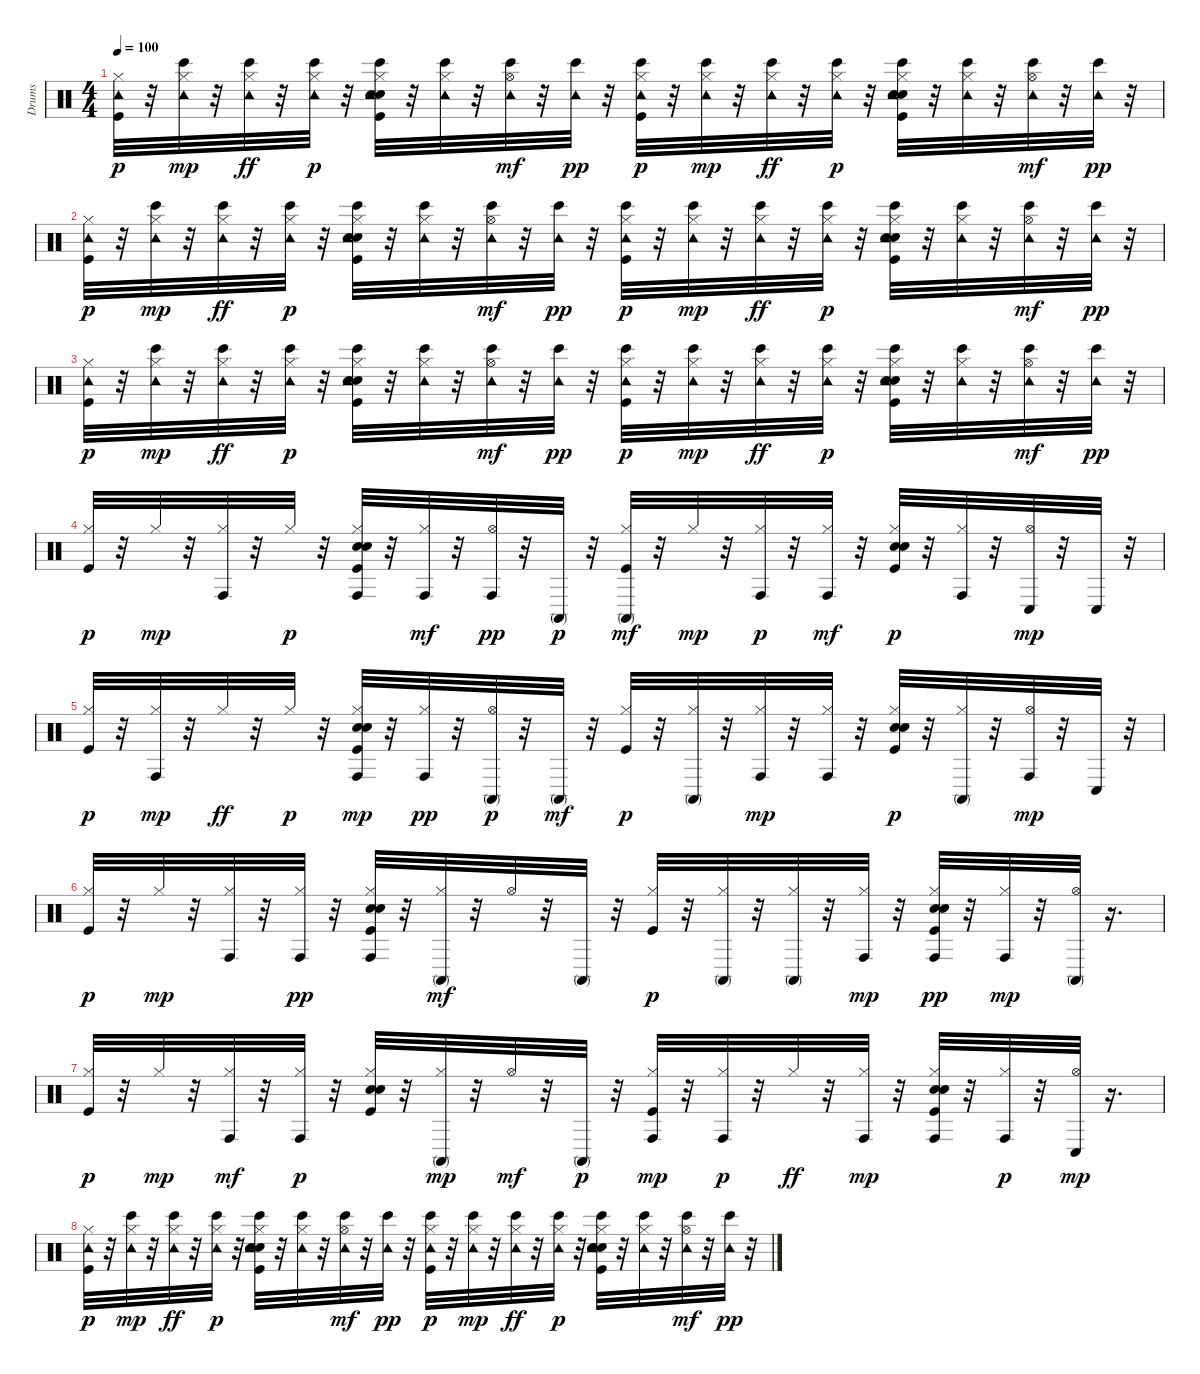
\track ("Drums" "Drums") {instrument percussion}
\staff {score}
\articulation defaults
\ts (4 4)
\tempo 100
\clef neutral
\ks c
("Tambourine (hit)" "Kick (hit)" "Hi-Hat (closed)").32{dy p} r.32 ("Bongo High (hit)" "Tambourine (hit)" "Hi-Hat (closed)").32{dy mp} r.32 ("Bongo High (hit)" "Tambourine (hit)" "Hi-Hat (closed)").32{dy ff} r.32 ("Bongo High (hit)" "Tambourine (hit)" "Hi-Hat (closed)").32{dy p} r.32 ("Hand Clap (hit)" "Snare (hit) 2" "Bongo High (hit)" "Tambourine (hit)" "Kick (hit)" "Hi-Hat (closed)").32 r.32 ("Bongo High (hit)" "Tambourine (hit)" "Hi-Hat (closed)").32 r.32 ("Bongo High (hit)" "Tambourine (hit)" "Hi-Hat (open)").32{dy mf} r.32 ("Bongo High (hit)" "Tambourine (hit)").32{dy pp} r.32 ("Bongo High (hit)" "Tambourine (hit)" "Kick (hit)" "Hi-Hat (closed)").32{dy p} r.32 ("Bongo High (hit)" "Tambourine (hit)" "Hi-Hat (closed)").32{dy mp} r.32 ("Bongo High (hit)" "Tambourine (hit)" "Hi-Hat (closed)").32{dy ff} r.32 ("Bongo High (hit)" "Tambourine (hit)" "Hi-Hat (closed)").32{dy p} r.32 ("Hand Clap (hit)" "Snare (hit) 2" "Bongo High (hit)" "Tambourine (hit)" "Kick (hit)" "Hi-Hat (closed)").32 r.32 ("Bongo High (hit)" "Tambourine (hit)" "Hi-Hat (closed)").32 r.32 ("Bongo High (hit)" "Tambourine (hit)" "Hi-Hat (open)").32{dy mf} r.32 ("Bongo High (hit)" "Tambourine (hit)").32{dy pp} r.32 |
("Tambourine (hit)" "Kick (hit)" "Hi-Hat (closed)").32{dy p} r.32 ("Bongo High (hit)" "Tambourine (hit)" "Hi-Hat (closed)").32{dy mp} r.32 ("Bongo High (hit)" "Tambourine (hit)" "Hi-Hat (closed)").32{dy ff} r.32 ("Bongo High (hit)" "Tambourine (hit)" "Hi-Hat (closed)").32{dy p} r.32 ("Hand Clap (hit)" "Snare (hit) 2" "Bongo High (hit)" "Tambourine (hit)" "Kick (hit)" "Hi-Hat (closed)").32 r.32 ("Bongo High (hit)" "Tambourine (hit)" "Hi-Hat (closed)").32 r.32 ("Bongo High (hit)" "Tambourine (hit)" "Hi-Hat (open)").32{dy mf} r.32 ("Bongo High (hit)" "Tambourine (hit)").32{dy pp} r.32 ("Bongo High (hit)" "Tambourine (hit)" "Kick (hit)" "Hi-Hat (closed)").32{dy p} r.32 ("Bongo High (hit)" "Tambourine (hit)" "Hi-Hat (closed)").32{dy mp} r.32 ("Bongo High (hit)" "Tambourine (hit)" "Hi-Hat (closed)").32{dy ff} r.32 ("Bongo High (hit)" "Tambourine (hit)" "Hi-Hat (closed)").32{dy p} r.32 ("Hand Clap (hit)" "Snare (hit) 2" "Bongo High (hit)" "Tambourine (hit)" "Kick (hit)" "Hi-Hat (closed)").32 r.32 ("Bongo High (hit)" "Tambourine (hit)" "Hi-Hat (closed)").32 r.32 ("Bongo High (hit)" "Tambourine (hit)" "Hi-Hat (open)").32{dy mf} r.32 ("Bongo High (hit)" "Tambourine (hit)").32{dy pp} r.32 |
("Tambourine (hit)" "Kick (hit)" "Hi-Hat (closed)").32{dy p} r.32 ("Bongo High (hit)" "Tambourine (hit)" "Hi-Hat (closed)").32{dy mp} r.32 ("Bongo High (hit)" "Tambourine (hit)" "Hi-Hat (closed)").32{dy ff} r.32 ("Bongo High (hit)" "Tambourine (hit)" "Hi-Hat (closed)").32{dy p} r.32 ("Hand Clap (hit)" "Snare (hit) 2" "Bongo High (hit)" "Tambourine (hit)" "Kick (hit)" "Hi-Hat (closed)").32 r.32 ("Bongo High (hit)" "Tambourine (hit)" "Hi-Hat (closed)").32 r.32 ("Bongo High (hit)" "Tambourine (hit)" "Hi-Hat (open)").32{dy mf} r.32 ("Bongo High (hit)" "Tambourine (hit)").32{dy pp} r.32 ("Bongo High (hit)" "Tambourine (hit)" "Kick (hit)" "Hi-Hat (closed)").32{dy p} r.32 ("Bongo High (hit)" "Tambourine (hit)" "Hi-Hat (closed)").32{dy mp} r.32 ("Bongo High (hit)" "Tambourine (hit)" "Hi-Hat (closed)").32{dy ff} r.32 ("Bongo High (hit)" "Tambourine (hit)" "Hi-Hat (closed)").32{dy p} r.32 ("Hand Clap (hit)" "Snare (hit) 2" "Bongo High (hit)" "Tambourine (hit)" "Kick (hit)" "Hi-Hat (closed)").32 r.32 ("Bongo High (hit)" "Tambourine (hit)" "Hi-Hat (closed)").32 r.32 ("Bongo High (hit)" "Tambourine (hit)" "Hi-Hat (open)").32{dy mf} r.32 ("Bongo High (hit)" "Tambourine (hit)").32{dy pp} r.32 |
("Kick (hit)" "Hi-Hat (closed)").32{dy p} r.32 "Hi-Hat (closed)".32{dy mp} r.32 ("Hi-Hat (closed)" "Conga high (hit)").32 r.32 "Hi-Hat (closed)".32{dy p} r.32 ("Hand Clap (hit)" "Snare (hit) 2" "Kick (hit)" "Hi-Hat (closed)" "Conga high (hit)").32 r.32 ("Hi-Hat (closed)" "Conga high (hit)").32{dy mf} r.32 ("Hi-Hat (open)" "Conga high (hit)").32{dy pp} r.32 "Conga high (mute)".32{dy p} r.32 ("Kick (hit)" "Hi-Hat (closed)" "Conga high (mute)").32{dy mf} r.32 "Hi-Hat (closed)".32{dy mp} r.32 ("Hi-Hat (closed)" "Conga high (hit)").32{dy p} r.32 ("Hi-Hat (closed)" "Conga high (hit)").32{dy mf} r.32 ("Hand Clap (hit)" "Snare (hit) 2" "Kick (hit)" "Hi-Hat (closed)").32{dy p} r.32 ("Hi-Hat (closed)" "Conga high (hit)").32 r.32 ("Hi-Hat (open)" "Conga low (hit)").32{dy mp} r.32 "Conga low (hit)".32 r.32 |
("Kick (hit)" "Hi-Hat (closed)").32{dy p} r.32 ("Hi-Hat (closed)" "Conga high (hit)").32{dy mp} r.32 "Hi-Hat (closed)".32{dy ff} r.32 "Hi-Hat (closed)".32{dy p} r.32 ("Hand Clap (hit)" "Snare (hit) 2" "Kick (hit)" "Hi-Hat (closed)" "Conga high (hit)").32{dy mp} r.32 ("Hi-Hat (closed)" "Conga high (hit)").32{dy pp} r.32 ("Hi-Hat (open)" "Conga high (mute)").32{dy p} r.32 "Conga high (mute)".32{dy mf} r.32 ("Kick (hit)" "Hi-Hat (closed)").32{dy p} r.32 ("Hi-Hat (closed)" "Conga high (mute)").32 r.32 ("Hi-Hat (closed)" "Conga high (hit)").32{dy mp} r.32 ("Hi-Hat (closed)" "Conga high (hit)").32 r.32 ("Hand Clap (hit)" "Snare (hit) 2" "Kick (hit)" "Hi-Hat (closed)").32{dy p} r.32 ("Hi-Hat (closed)" "Conga high (mute)").32 r.32 ("Hi-Hat (open)" "Conga high (hit)").32{dy mp} r.32 "Conga low (hit)".32 r.32 |
("Kick (hit)" "Hi-Hat (closed)").32{dy p} r.32 "Hi-Hat (closed)".32{dy mp} r.32 ("Hi-Hat (closed)" "Conga high (hit)").32 r.32 ("Hi-Hat (closed)" "Conga high (hit)").32{dy pp} r.32 ("Hand Clap (hit)" "Snare (hit) 2" "Kick (hit)" "Hi-Hat (closed)" "Conga high (hit)").32 r.32 ("Hi-Hat (closed)" "Conga high (mute)").32{dy mf} r.32 "Hi-Hat (open)".32 r.32 "Conga high (mute)".32 r.32 ("Kick (hit)" "Hi-Hat (closed)").32{dy p} r.32 ("Hi-Hat (closed)" "Conga high (mute)").32 r.32 ("Hi-Hat (closed)" "Conga high (mute)").32 r.32 ("Hi-Hat (closed)" "Conga high (hit)").32{dy mp} r.32 ("Hand Clap (hit)" "Snare (hit) 2" "Kick (hit)" "Hi-Hat (closed)" "Conga high (hit)").32{dy pp} r.32 ("Hi-Hat (closed)" "Conga high (hit)").32{dy mp} r.32 ("Hi-Hat (open)" "Conga high (mute)").32 r.16{d} |
("Kick (hit)" "Hi-Hat (closed)").32{dy p} r.32 "Hi-Hat (closed)".32{dy mp} r.32 ("Hi-Hat (closed)" "Conga high (hit)").32{dy mf} r.32 ("Hi-Hat (closed)" "Conga high (hit)").32{dy p} r.32 ("Hand Clap (hit)" "Snare (hit) 2" "Kick (hit)" "Hi-Hat (closed)").32 r.32 ("Hi-Hat (closed)" "Conga high (mute)").32{dy mp} r.32 "Hi-Hat (open)".32{dy mf} r.32 "Conga high (mute)".32{dy p} r.32 ("Kick (hit)" "Hi-Hat (closed)" "Conga high (hit)").32{dy mp} r.32 ("Hi-Hat (closed)" "Conga high (hit)").32{dy p} r.32 "Hi-Hat (closed)".32{dy ff} r.32 ("Hi-Hat (closed)" "Conga high (hit)").32{dy mp} r.32 ("Hand Clap (hit)" "Snare (hit) 2" "Kick (hit)" "Hi-Hat (closed)" "Conga high (hit)").32 r.32 ("Hi-Hat (closed)" "Conga high (hit)").32{dy p} r.32 ("Hi-Hat (open)" "Conga low (hit)").32{dy mp} r.16{d} |
("Tambourine (hit)" "Kick (hit)" "Hi-Hat (closed)").32{dy p} r.32 ("Bongo High (hit)" "Tambourine (hit)" "Hi-Hat (closed)").32{dy mp} r.32 ("Bongo High (hit)" "Tambourine (hit)" "Hi-Hat (closed)").32{dy ff} r.32 ("Bongo High (hit)" "Tambourine (hit)" "Hi-Hat (closed)").32{dy p} r.32 ("Hand Clap (hit)" "Snare (hit) 2" "Bongo High (hit)" "Tambourine (hit)" "Kick (hit)" "Hi-Hat (closed)").32 r.32 ("Bongo High (hit)" "Tambourine (hit)" "Hi-Hat (closed)").32 r.32 ("Bongo High (hit)" "Tambourine (hit)" "Hi-Hat (open)").32{dy mf} r.32 ("Bongo High (hit)" "Tambourine (hit)").32{dy pp} r.32 ("Bongo High (hit)" "Tambourine (hit)" "Kick (hit)" "Hi-Hat (closed)").32{dy p} r.32 ("Bongo High (hit)" "Tambourine (hit)" "Hi-Hat (closed)").32{dy mp} r.32 ("Bongo High (hit)" "Tambourine (hit)" "Hi-Hat (closed)").32{dy ff} r.32 ("Bongo High (hit)" "Tambourine (hit)" "Hi-Hat (closed)").32{dy p} r.32 ("Hand Clap (hit)" "Snare (hit) 2" "Bongo High (hit)" "Tambourine (hit)" "Kick (hit)" "Hi-Hat (closed)").32 r.32 ("Bongo High (hit)" "Tambourine (hit)" "Hi-Hat (closed)").32 r.32 ("Bongo High (hit)" "Tambourine (hit)" "Hi-Hat (open)").32{dy mf} r.32 ("Bongo High (hit)" "Tambourine (hit)").32{dy pp} r.32
